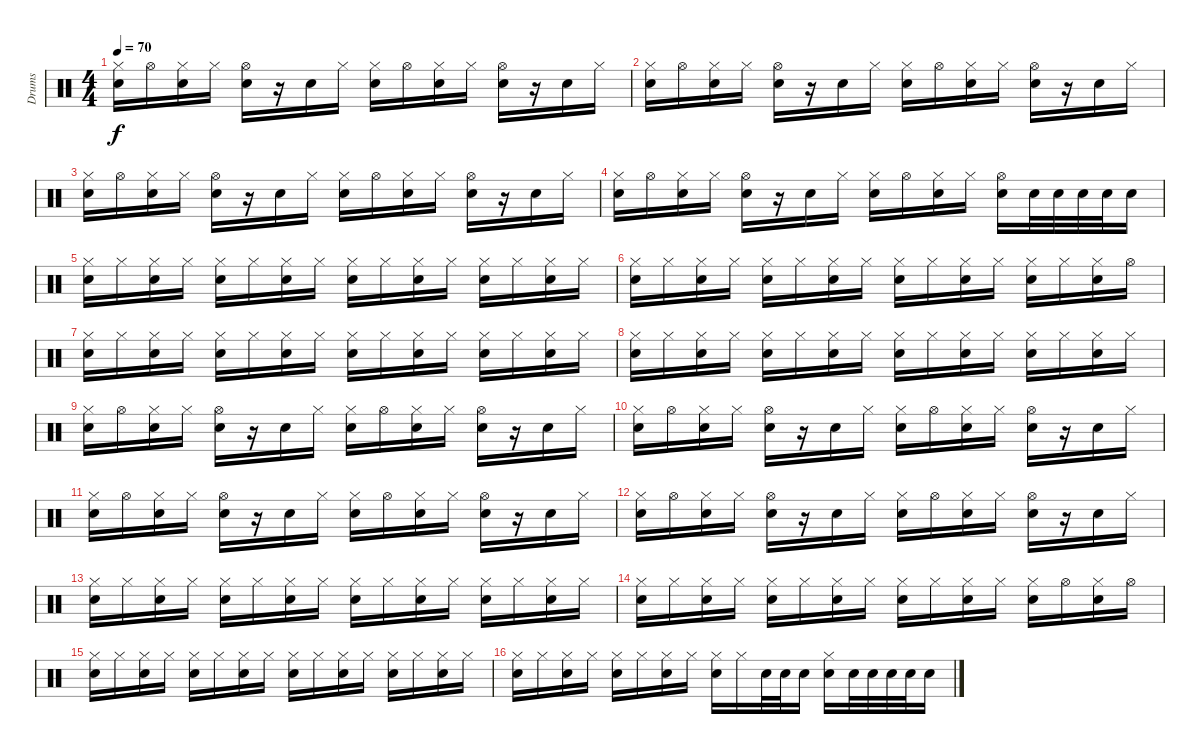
\track ("Drums" "Drums") {instrument percussion}
\staff {score}
\articulation defaults
\ts (4 4)
\tempo 70
\clef neutral
\ks c
("Hi-Hat (closed)" "Electric Snare (hit)").16{dy f} "Hi-Hat (open)".16 ("Hi-Hat (closed)" "Electric Snare (hit)").16 "Hi-Hat (closed)".16 ("Hi-Hat (open)" "Electric Snare (hit)").16 r.16 "Electric Snare (hit)".16 "Hi-Hat (closed)".16 ("Hi-Hat (closed)" "Electric Snare (hit)").16 "Hi-Hat (open)".16 ("Hi-Hat (closed)" "Electric Snare (hit)").16 "Hi-Hat (closed)".16 ("Hi-Hat (open)" "Electric Snare (hit)").16 r.16 "Electric Snare (hit)".16 "Hi-Hat (closed)".16 |
("Hi-Hat (closed)" "Electric Snare (hit)").16 "Hi-Hat (open)".16 ("Hi-Hat (closed)" "Electric Snare (hit)").16 "Hi-Hat (closed)".16 ("Hi-Hat (open)" "Electric Snare (hit)").16 r.16 "Electric Snare (hit)".16 "Hi-Hat (closed)".16 ("Hi-Hat (closed)" "Electric Snare (hit)").16 "Hi-Hat (open)".16 ("Hi-Hat (closed)" "Electric Snare (hit)").16 "Hi-Hat (closed)".16 ("Hi-Hat (open)" "Electric Snare (hit)").16 r.16 "Electric Snare (hit)".16 "Hi-Hat (closed)".16 |
("Hi-Hat (closed)" "Electric Snare (hit)").16 "Hi-Hat (open)".16 ("Hi-Hat (closed)" "Electric Snare (hit)").16 "Hi-Hat (closed)".16 ("Hi-Hat (open)" "Electric Snare (hit)").16 r.16 "Electric Snare (hit)".16 "Hi-Hat (closed)".16 ("Hi-Hat (closed)" "Electric Snare (hit)").16 "Hi-Hat (open)".16 ("Hi-Hat (closed)" "Electric Snare (hit)").16 "Hi-Hat (closed)".16 ("Hi-Hat (open)" "Electric Snare (hit)").16 r.16 "Electric Snare (hit)".16 "Hi-Hat (closed)".16 |
("Hi-Hat (closed)" "Electric Snare (hit)").16 "Hi-Hat (open)".16 ("Hi-Hat (closed)" "Electric Snare (hit)").16 "Hi-Hat (closed)".16 ("Hi-Hat (open)" "Electric Snare (hit)").16 r.16 "Electric Snare (hit)".16 "Hi-Hat (closed)".16 ("Hi-Hat (closed)" "Electric Snare (hit)").16 "Hi-Hat (open)".16 ("Hi-Hat (closed)" "Electric Snare (hit)").16 "Hi-Hat (closed)".16 ("Hi-Hat (open)" "Electric Snare (hit)").16 "Electric Snare (hit)".32 "Electric Snare (hit)".32 "Electric Snare (hit)".32 "Electric Snare (hit)".32 "Electric Snare (hit)".16 |
("Hi-Hat (closed)" "Electric Snare (hit)").16 "Hi-Hat (closed)".16 ("Hi-Hat (closed)" "Electric Snare (hit)").16 "Hi-Hat (closed)".16 ("Hi-Hat (closed)" "Electric Snare (hit)").16 "Hi-Hat (closed)".16 ("Hi-Hat (closed)" "Electric Snare (hit)").16 "Hi-Hat (closed)".16 ("Hi-Hat (closed)" "Electric Snare (hit)").16 "Hi-Hat (closed)".16 ("Hi-Hat (closed)" "Electric Snare (hit)").16 "Hi-Hat (closed)".16 ("Hi-Hat (closed)" "Electric Snare (hit)").16 "Hi-Hat (closed)".16 ("Hi-Hat (closed)" "Electric Snare (hit)").16 "Hi-Hat (closed)".16 |
("Hi-Hat (closed)" "Electric Snare (hit)").16 "Hi-Hat (closed)".16 ("Hi-Hat (closed)" "Electric Snare (hit)").16 "Hi-Hat (closed)".16 ("Hi-Hat (closed)" "Electric Snare (hit)").16 "Hi-Hat (closed)".16 ("Hi-Hat (closed)" "Electric Snare (hit)").16 "Hi-Hat (closed)".16 ("Hi-Hat (closed)" "Electric Snare (hit)").16 "Hi-Hat (closed)".16 ("Hi-Hat (closed)" "Electric Snare (hit)").16 "Hi-Hat (closed)".16 ("Hi-Hat (closed)" "Electric Snare (hit)").16 "Hi-Hat (closed)".16 ("Hi-Hat (closed)" "Electric Snare (hit)").16 "Hi-Hat (open)".16 |
("Hi-Hat (closed)" "Electric Snare (hit)").16 "Hi-Hat (closed)".16 ("Hi-Hat (closed)" "Electric Snare (hit)").16 "Hi-Hat (closed)".16 ("Hi-Hat (closed)" "Electric Snare (hit)").16 "Hi-Hat (closed)".16 ("Hi-Hat (closed)" "Electric Snare (hit)").16 "Hi-Hat (closed)".16 ("Hi-Hat (closed)" "Electric Snare (hit)").16 "Hi-Hat (closed)".16 ("Hi-Hat (closed)" "Electric Snare (hit)").16 "Hi-Hat (closed)".16 ("Hi-Hat (closed)" "Electric Snare (hit)").16 "Hi-Hat (closed)".16 ("Hi-Hat (closed)" "Electric Snare (hit)").16 "Hi-Hat (closed)".16 |
("Hi-Hat (closed)" "Electric Snare (hit)").16 "Hi-Hat (closed)".16 ("Hi-Hat (closed)" "Electric Snare (hit)").16 "Hi-Hat (closed)".16 ("Hi-Hat (closed)" "Electric Snare (hit)").16 "Hi-Hat (closed)".16 ("Hi-Hat (closed)" "Electric Snare (hit)").16 "Hi-Hat (closed)".16 ("Hi-Hat (closed)" "Electric Snare (hit)").16 "Hi-Hat (closed)".16 ("Hi-Hat (closed)" "Electric Snare (hit)").16 "Hi-Hat (closed)".16 ("Hi-Hat (closed)" "Electric Snare (hit)").16 "Hi-Hat (closed)".16 ("Hi-Hat (closed)" "Electric Snare (hit)").16 "Hi-Hat (closed)".16 |
("Hi-Hat (closed)" "Electric Snare (hit)").16 "Hi-Hat (open)".16 ("Hi-Hat (closed)" "Electric Snare (hit)").16 "Hi-Hat (closed)".16 ("Hi-Hat (open)" "Electric Snare (hit)").16 r.16 "Electric Snare (hit)".16 "Hi-Hat (closed)".16 ("Hi-Hat (closed)" "Electric Snare (hit)").16 "Hi-Hat (open)".16 ("Hi-Hat (closed)" "Electric Snare (hit)").16 "Hi-Hat (closed)".16 ("Hi-Hat (open)" "Electric Snare (hit)").16 r.16 "Electric Snare (hit)".16 "Hi-Hat (closed)".16 |
("Hi-Hat (closed)" "Electric Snare (hit)").16 "Hi-Hat (open)".16 ("Hi-Hat (closed)" "Electric Snare (hit)").16 "Hi-Hat (closed)".16 ("Hi-Hat (open)" "Electric Snare (hit)").16 r.16 "Electric Snare (hit)".16 "Hi-Hat (closed)".16 ("Hi-Hat (closed)" "Electric Snare (hit)").16 "Hi-Hat (open)".16 ("Hi-Hat (closed)" "Electric Snare (hit)").16 "Hi-Hat (closed)".16 ("Hi-Hat (open)" "Electric Snare (hit)").16 r.16 "Electric Snare (hit)".16 "Hi-Hat (closed)".16 |
("Hi-Hat (closed)" "Electric Snare (hit)").16 "Hi-Hat (open)".16 ("Hi-Hat (closed)" "Electric Snare (hit)").16 "Hi-Hat (closed)".16 ("Hi-Hat (open)" "Electric Snare (hit)").16 r.16 "Electric Snare (hit)".16 "Hi-Hat (closed)".16 ("Hi-Hat (closed)" "Electric Snare (hit)").16 "Hi-Hat (open)".16 ("Hi-Hat (closed)" "Electric Snare (hit)").16 "Hi-Hat (closed)".16 ("Hi-Hat (open)" "Electric Snare (hit)").16 r.16 "Electric Snare (hit)".16 "Hi-Hat (closed)".16 |
("Hi-Hat (closed)" "Electric Snare (hit)").16 "Hi-Hat (open)".16 ("Hi-Hat (closed)" "Electric Snare (hit)").16 "Hi-Hat (closed)".16 ("Hi-Hat (open)" "Electric Snare (hit)").16 r.16 "Electric Snare (hit)".16 "Hi-Hat (closed)".16 ("Hi-Hat (closed)" "Electric Snare (hit)").16 "Hi-Hat (open)".16 ("Hi-Hat (closed)" "Electric Snare (hit)").16 "Hi-Hat (closed)".16 ("Hi-Hat (open)" "Electric Snare (hit)").16 r.16 "Electric Snare (hit)".16 "Hi-Hat (closed)".16 |
("Hi-Hat (closed)" "Electric Snare (hit)").16 "Hi-Hat (closed)".16 ("Hi-Hat (closed)" "Electric Snare (hit)").16 "Hi-Hat (closed)".16 ("Hi-Hat (closed)" "Electric Snare (hit)").16 "Hi-Hat (closed)".16 ("Hi-Hat (closed)" "Electric Snare (hit)").16 "Hi-Hat (closed)".16 ("Hi-Hat (closed)" "Electric Snare (hit)").16 "Hi-Hat (closed)".16 ("Hi-Hat (closed)" "Electric Snare (hit)").16 "Hi-Hat (closed)".16 ("Hi-Hat (closed)" "Electric Snare (hit)").16 "Hi-Hat (closed)".16 ("Hi-Hat (closed)" "Electric Snare (hit)").16 "Hi-Hat (closed)".16 |
("Hi-Hat (closed)" "Electric Snare (hit)").16 "Hi-Hat (closed)".16 ("Hi-Hat (closed)" "Electric Snare (hit)").16 "Hi-Hat (closed)".16 ("Hi-Hat (closed)" "Electric Snare (hit)").16 "Hi-Hat (closed)".16 ("Hi-Hat (closed)" "Electric Snare (hit)").16 "Hi-Hat (closed)".16 ("Hi-Hat (closed)" "Electric Snare (hit)").16 "Hi-Hat (closed)".16 ("Hi-Hat (closed)" "Electric Snare (hit)").16 "Hi-Hat (closed)".16 ("Hi-Hat (closed)" "Electric Snare (hit)").16 "Hi-Hat (open)".16 ("Hi-Hat (closed)" "Electric Snare (hit)").16 "Hi-Hat (open)".16 |
("Hi-Hat (closed)" "Electric Snare (hit)").16 "Hi-Hat (closed)".16 ("Hi-Hat (closed)" "Electric Snare (hit)").16 "Hi-Hat (closed)".16 ("Hi-Hat (closed)" "Electric Snare (hit)").16 "Hi-Hat (closed)".16 ("Hi-Hat (closed)" "Electric Snare (hit)").16 "Hi-Hat (closed)".16 ("Hi-Hat (closed)" "Electric Snare (hit)").16 "Hi-Hat (closed)".16 ("Hi-Hat (closed)" "Electric Snare (hit)").16 "Hi-Hat (closed)".16 ("Hi-Hat (closed)" "Electric Snare (hit)").16 "Hi-Hat (closed)".16 ("Hi-Hat (closed)" "Electric Snare (hit)").16 "Hi-Hat (closed)".16 |
("Hi-Hat (closed)" "Electric Snare (hit)").16 "Hi-Hat (closed)".16 ("Hi-Hat (closed)" "Electric Snare (hit)").16 "Hi-Hat (closed)".16 ("Hi-Hat (closed)" "Electric Snare (hit)").16 "Hi-Hat (closed)".16 ("Hi-Hat (closed)" "Electric Snare (hit)").16 "Hi-Hat (closed)".16 ("Hi-Hat (closed)" "Electric Snare (hit)").16 "Hi-Hat (closed)".16 "Electric Snare (hit)".32 "Electric Snare (hit)".32 "Electric Snare (hit)".16 ("Hi-Hat (closed)" "Electric Snare (hit)").16 "Electric Snare (hit)".32 "Electric Snare (hit)".32 "Electric Snare (hit)".32 "Electric Snare (hit)".32 "Electric Snare (hit)".16
